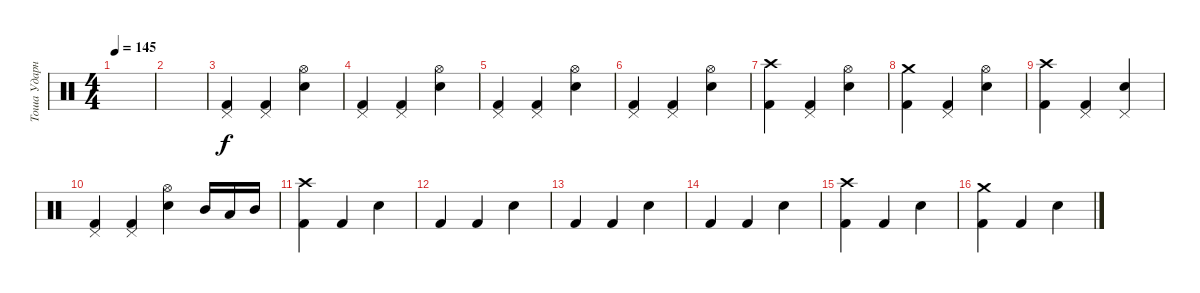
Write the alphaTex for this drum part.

\track ("Тоша Ударные" "Тоша Ударн") {instrument percussion}
\staff {score}
\articulation defaults
\ts (4 4)
\tempo 145
\clef neutral
\ks c
|
|
("Kick (hit) 2" "Pedal Hi-Hat (hit)").4 ("Kick (hit) 2" "Pedal Hi-Hat (hit)").4 ("Electric Snare (hit)" "Hi-Hat (open)").4 |
("Kick (hit) 2" "Pedal Hi-Hat (hit)").4 ("Kick (hit) 2" "Pedal Hi-Hat (hit)").4 ("Electric Snare (hit)" "Hi-Hat (open)").4 |
("Kick (hit) 2" "Pedal Hi-Hat (hit)").4 ("Kick (hit) 2" "Pedal Hi-Hat (hit)").4 ("Electric Snare (hit)" "Hi-Hat (open)").4 |
("Kick (hit) 2" "Pedal Hi-Hat (hit)").4 ("Kick (hit) 2" "Pedal Hi-Hat (hit)").4 ("Electric Snare (hit)" "Hi-Hat (open)").4 |
("Kick (hit) 2" "Crash high (hit)").4 ("Kick (hit) 2" "Pedal Hi-Hat (hit)").4 ("Electric Snare (hit)" "Hi-Hat (open)").4 |
("Kick (hit) 2" "Crash medium (hit)").4 ("Kick (hit) 2" "Pedal Hi-Hat (hit)").4 ("Electric Snare (hit)" "Hi-Hat (open)").4 |
("Kick (hit) 2" "Crash high (hit)").4 ("Kick (hit) 2" "Pedal Hi-Hat (hit)").4 ("Electric Snare (hit)" "Pedal Hi-Hat (hit)").4 |
("Kick (hit) 2" "Pedal Hi-Hat (hit)").4 ("Kick (hit) 2" "Pedal Hi-Hat (hit)").4 ("Electric Snare (hit)" "Hi-Hat (open)").4 "Mid Tom (hit)".16 "Low Tom (hit)".16 "Mid Tom (hit)".16 |
("Kick (hit) 2" "Crash high (hit)").4 "Kick (hit) 2".4 "Electric Snare (hit)".4 |
"Kick (hit) 2".4 "Kick (hit) 2".4 "Electric Snare (hit)".4 |
"Kick (hit) 2".4 "Kick (hit) 2".4 "Electric Snare (hit)".4 |
"Kick (hit) 2".4 "Kick (hit) 2".4 "Electric Snare (hit)".4 |
("Kick (hit) 2" "Crash high (hit)").4 "Kick (hit) 2".4 "Electric Snare (hit)".4 |
("Kick (hit) 2" "Crash medium (hit)").4 "Kick (hit) 2".4 "Electric Snare (hit)".4
